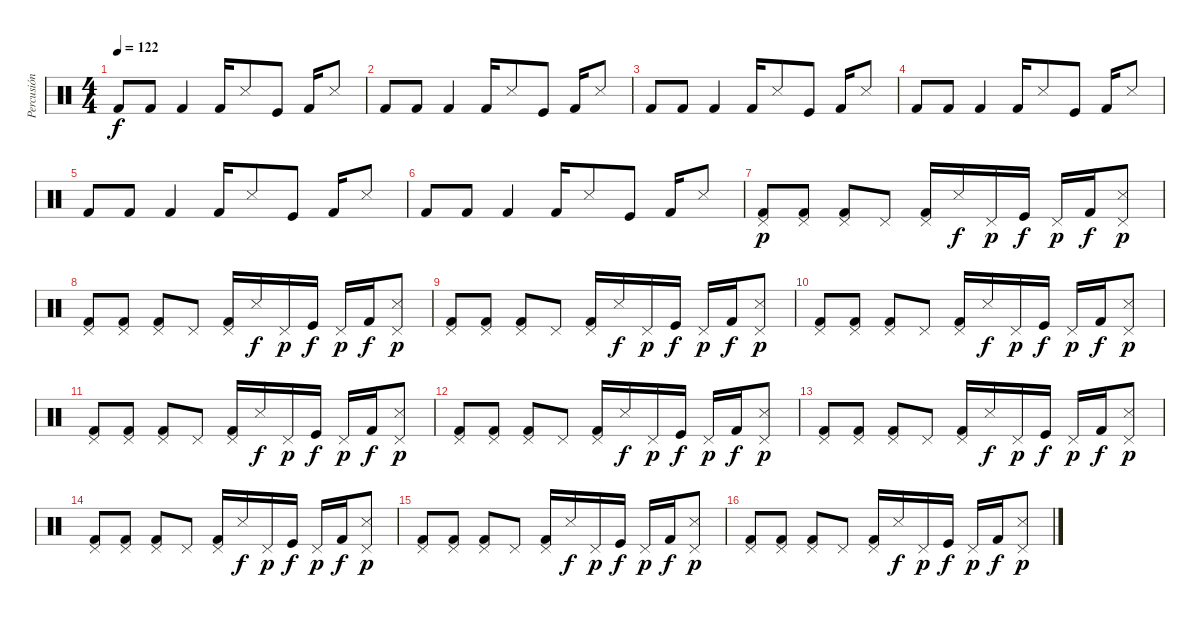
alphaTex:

\track ("Percusión" "Percusión") {instrument percussion}
\staff {score}
\articulation defaults
\ts (4 4)
\tempo 122
\clef neutral
\ks c "Kick (hit) 2".8{dy f} "Kick (hit) 2".8 "Kick (hit) 2".4 "Kick (hit) 2".16 "Snare (side stick) 3".8 "Kick (hit)".8 "Kick (hit) 2".16 "Snare (side stick) 3".8
|
"Kick (hit) 2".8 "Kick (hit) 2".8 "Kick (hit) 2".4 "Kick (hit) 2".16 "Snare (side stick) 3".8 "Kick (hit)".8 "Kick (hit) 2".16 "Snare (side stick) 3".8 |
"Kick (hit) 2".8 "Kick (hit) 2".8 "Kick (hit) 2".4 "Kick (hit) 2".16 "Snare (side stick) 3".8 "Kick (hit)".8 "Kick (hit) 2".16 "Snare (side stick) 3".8 |
"Kick (hit) 2".8 "Kick (hit) 2".8 "Kick (hit) 2".4 "Kick (hit) 2".16 "Snare (side stick) 3".8 "Kick (hit)".8 "Kick (hit) 2".16 "Snare (side stick) 3".8 |
"Kick (hit) 2".8 "Kick (hit) 2".8 "Kick (hit) 2".4 "Kick (hit) 2".16 "Snare (side stick) 3".8 "Kick (hit)".8 "Kick (hit) 2".16 "Snare (side stick) 3".8 |
"Kick (hit) 2".8 "Kick (hit) 2".8 "Kick (hit) 2".4 "Kick (hit) 2".16 "Snare (side stick) 3".8 "Kick (hit)".8 "Kick (hit) 2".16 "Snare (side stick) 3".8 |
("Pedal Hi-Hat (hit)" "Kick (hit) 2").8{dy p} ("Pedal Hi-Hat (hit)" "Kick (hit) 2").8 ("Pedal Hi-Hat (hit)" "Kick (hit) 2").8 "Pedal Hi-Hat (hit)".8 ("Pedal Hi-Hat (hit)" "Kick (hit) 2").16 "Snare (side stick) 3".16{dy f} "Pedal Hi-Hat (hit)".16{dy p} "Kick (hit)".16{dy f} "Pedal Hi-Hat (hit)".16{dy p} "Kick (hit) 2".16{dy f} ("Pedal Hi-Hat (hit)" "Snare (side stick) 3").8{dy p} |
("Pedal Hi-Hat (hit)" "Kick (hit) 2").8 ("Pedal Hi-Hat (hit)" "Kick (hit) 2").8 ("Pedal Hi-Hat (hit)" "Kick (hit) 2").8 "Pedal Hi-Hat (hit)".8 ("Pedal Hi-Hat (hit)" "Kick (hit) 2").16 "Snare (side stick) 3".16{dy f} "Pedal Hi-Hat (hit)".16{dy p} "Kick (hit)".16{dy f} "Pedal Hi-Hat (hit)".16{dy p} "Kick (hit) 2".16{dy f} ("Pedal Hi-Hat (hit)" "Snare (side stick) 3").8{dy p} |
("Pedal Hi-Hat (hit)" "Kick (hit) 2").8 ("Pedal Hi-Hat (hit)" "Kick (hit) 2").8 ("Pedal Hi-Hat (hit)" "Kick (hit) 2").8 "Pedal Hi-Hat (hit)".8 ("Pedal Hi-Hat (hit)" "Kick (hit) 2").16 "Snare (side stick) 3".16{dy f} "Pedal Hi-Hat (hit)".16{dy p} "Kick (hit)".16{dy f} "Pedal Hi-Hat (hit)".16{dy p} "Kick (hit) 2".16{dy f} ("Pedal Hi-Hat (hit)" "Snare (side stick) 3").8{dy p} |
("Pedal Hi-Hat (hit)" "Kick (hit) 2").8 ("Pedal Hi-Hat (hit)" "Kick (hit) 2").8 ("Pedal Hi-Hat (hit)" "Kick (hit) 2").8 "Pedal Hi-Hat (hit)".8 ("Pedal Hi-Hat (hit)" "Kick (hit) 2").16 "Snare (side stick) 3".16{dy f} "Pedal Hi-Hat (hit)".16{dy p} "Kick (hit)".16{dy f} "Pedal Hi-Hat (hit)".16{dy p} "Kick (hit) 2".16{dy f} ("Pedal Hi-Hat (hit)" "Snare (side stick) 3").8{dy p} |
("Pedal Hi-Hat (hit)" "Kick (hit) 2").8 ("Pedal Hi-Hat (hit)" "Kick (hit) 2").8 ("Pedal Hi-Hat (hit)" "Kick (hit) 2").8 "Pedal Hi-Hat (hit)".8 ("Pedal Hi-Hat (hit)" "Kick (hit) 2").16 "Snare (side stick) 3".16{dy f} "Pedal Hi-Hat (hit)".16{dy p} "Kick (hit)".16{dy f} "Pedal Hi-Hat (hit)".16{dy p} "Kick (hit) 2".16{dy f} ("Pedal Hi-Hat (hit)" "Snare (side stick) 3").8{dy p} |
("Pedal Hi-Hat (hit)" "Kick (hit) 2").8 ("Pedal Hi-Hat (hit)" "Kick (hit) 2").8 ("Pedal Hi-Hat (hit)" "Kick (hit) 2").8 "Pedal Hi-Hat (hit)".8 ("Pedal Hi-Hat (hit)" "Kick (hit) 2").16 "Snare (side stick) 3".16{dy f} "Pedal Hi-Hat (hit)".16{dy p} "Kick (hit)".16{dy f} "Pedal Hi-Hat (hit)".16{dy p} "Kick (hit) 2".16{dy f} ("Pedal Hi-Hat (hit)" "Snare (side stick) 3").8{dy p} |
("Pedal Hi-Hat (hit)" "Kick (hit) 2").8 ("Pedal Hi-Hat (hit)" "Kick (hit) 2").8 ("Pedal Hi-Hat (hit)" "Kick (hit) 2").8 "Pedal Hi-Hat (hit)".8 ("Pedal Hi-Hat (hit)" "Kick (hit) 2").16 "Snare (side stick) 3".16{dy f} "Pedal Hi-Hat (hit)".16{dy p} "Kick (hit)".16{dy f} "Pedal Hi-Hat (hit)".16{dy p} "Kick (hit) 2".16{dy f} ("Pedal Hi-Hat (hit)" "Snare (side stick) 3").8{dy p} |
("Pedal Hi-Hat (hit)" "Kick (hit) 2").8 ("Pedal Hi-Hat (hit)" "Kick (hit) 2").8 ("Pedal Hi-Hat (hit)" "Kick (hit) 2").8 "Pedal Hi-Hat (hit)".8 ("Pedal Hi-Hat (hit)" "Kick (hit) 2").16 "Snare (side stick) 3".16{dy f} "Pedal Hi-Hat (hit)".16{dy p} "Kick (hit)".16{dy f} "Pedal Hi-Hat (hit)".16{dy p} "Kick (hit) 2".16{dy f} ("Pedal Hi-Hat (hit)" "Snare (side stick) 3").8{dy p} |
("Pedal Hi-Hat (hit)" "Kick (hit) 2").8 ("Pedal Hi-Hat (hit)" "Kick (hit) 2").8 ("Pedal Hi-Hat (hit)" "Kick (hit) 2").8 "Pedal Hi-Hat (hit)".8 ("Pedal Hi-Hat (hit)" "Kick (hit) 2").16 "Snare (side stick) 3".16{dy f} "Pedal Hi-Hat (hit)".16{dy p} "Kick (hit)".16{dy f} "Pedal Hi-Hat (hit)".16{dy p} "Kick (hit) 2".16{dy f} ("Pedal Hi-Hat (hit)" "Snare (side stick) 3").8{dy p} |
("Pedal Hi-Hat (hit)" "Kick (hit) 2").8 ("Pedal Hi-Hat (hit)" "Kick (hit) 2").8 ("Pedal Hi-Hat (hit)" "Kick (hit) 2").8 "Pedal Hi-Hat (hit)".8 ("Pedal Hi-Hat (hit)" "Kick (hit) 2").16 "Snare (side stick) 3".16{dy f} "Pedal Hi-Hat (hit)".16{dy p} "Kick (hit)".16{dy f} "Pedal Hi-Hat (hit)".16{dy p} "Kick (hit) 2".16{dy f} ("Pedal Hi-Hat (hit)" "Snare (side stick) 3").8{dy p}
